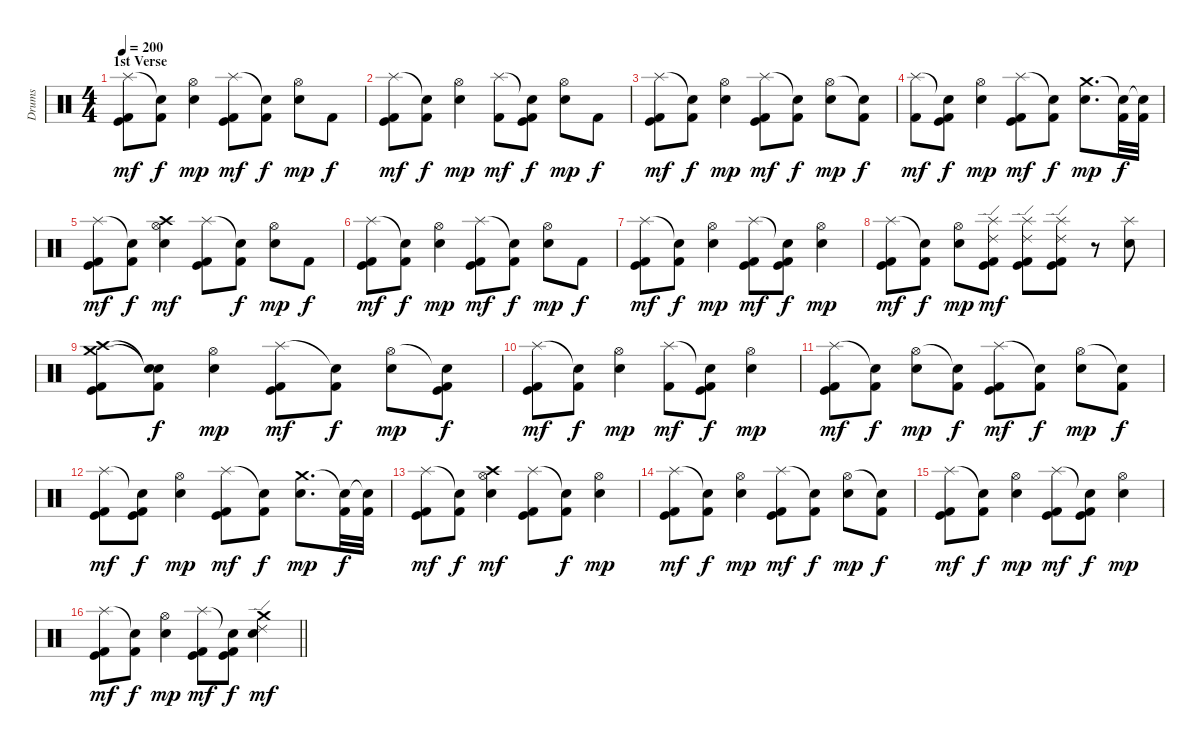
\track ("Drums" "Drums") {instrument percussion}
\staff {score}
\articulation defaults
\ts (4 4)
\section ("" "1st Verse")
\tempo 200
\clef neutral
\ks c
("Splash (hit)" "Kick (hit)" "Kick (hit) 2").8{dy mf} ("Snare (hit)"{t} "Kick (hit) 2").8{dy f} ("Hi-Hat (open)" "Snare (hit) 2").4{dy mp} ("Splash (hit)" "Kick (hit)" "Kick (hit) 2").8{dy mf} ("Snare (hit)"{t} "Kick (hit) 2").8{dy f} ("Hi-Hat (open)" "Snare (hit) 2").8{dy mp} "Kick (hit) 2".8{dy f} |
("Splash (hit)" "Kick (hit)" "Kick (hit) 2").8{dy mf} ("Snare (hit)"{t} "Kick (hit) 2").8{dy f} ("Hi-Hat (open)" "Snare (hit) 2").4{dy mp} ("Splash (hit)" "Kick (hit) 2").8{dy mf} ("Snare (hit)"{t} "Kick (hit)" "Kick (hit) 2").8{dy f} ("Hi-Hat (open)" "Snare (hit) 2").8{dy mp} "Kick (hit) 2".8{dy f} |
("Splash (hit)" "Kick (hit)" "Kick (hit) 2").8{dy mf} ("Snare (hit)"{t} "Kick (hit) 2").8{dy f} ("Hi-Hat (open)" "Snare (hit) 2").4{dy mp} ("Splash (hit)" "Kick (hit)" "Kick (hit) 2").8{dy mf} ("Snare (hit)"{t} "Kick (hit) 2").8{dy f} ("Hi-Hat (open)" "Snare (hit) 2").8{dy mp} ("Snare (hit)"{t} "Kick (hit) 2").8{dy f} |
("Splash (hit)" "Kick (hit) 2").8{dy mf} ("Snare (hit)"{t} "Kick (hit)" "Kick (hit) 2").8{dy f} ("Hi-Hat (open)" "Snare (hit) 2").4{dy mp} ("Splash (hit)" "Kick (hit)" "Kick (hit) 2").8{dy mf} ("Snare (hit)"{t} "Kick (hit) 2").8{dy f} ("Crash medium (hit)" "Snare (hit) 2").8{d dy mp} ("Snare (hit)"{t} "Kick (hit) 2").32{dy f} ("Snare (hit)"{t} "Kick (hit) 2").32 |
("Splash (hit)" "Kick (hit)" "Kick (hit) 2").8{dy mf} ("Snare (hit)"{t} "Kick (hit) 2").8{dy f} ("Crash high (hit)" "Hi-Hat (open)" "Snare (hit) 2").4{dy mf} ("Splash (hit)" "Kick (hit)" "Kick (hit) 2").8 ("Snare (hit)"{t} "Kick (hit) 2").8{dy f} ("Hi-Hat (open)" "Snare (hit) 2").8{dy mp} "Kick (hit) 2".8{dy f} |
("Splash (hit)" "Kick (hit)" "Kick (hit) 2").8{dy mf} ("Snare (hit)"{t} "Kick (hit) 2").8{dy f} ("Hi-Hat (open)" "Snare (hit) 2").4{dy mp} ("Splash (hit)" "Kick (hit)" "Kick (hit) 2").8{dy mf} ("Snare (hit)"{t} "Kick (hit) 2").8{dy f} ("Hi-Hat (open)" "Snare (hit) 2").8{dy mp} "Kick (hit) 2".8{dy f} |
("Splash (hit)" "Kick (hit)" "Kick (hit) 2").8{dy mf} ("Snare (hit)"{t} "Kick (hit) 2").8{dy f} ("Hi-Hat (open)" "Snare (hit) 2").4{dy mp} ("Splash (hit)" "Kick (hit)" "Kick (hit) 2").8{dy mf} ("Snare (hit)"{t} "Kick (hit)" "Kick (hit) 2").8{dy f} ("Hi-Hat (open)" "Snare (hit) 2").4{dy mp} |
("Splash (hit)" "Kick (hit)" "Kick (hit) 2").8{dy mf} ("Snare (hit)"{t} "Kick (hit) 2").8{dy f} ("Hi-Hat (open)" "Snare (hit) 2").8{dy mp} ("Splash (hit)" "Ride (edge) 2" "Kick (hit)" "Kick (hit) 2").8{dy mf} ("Splash (hit)" "Ride (edge) 2" "Kick (hit)" "Kick (hit) 2").8 ("Splash (hit)" "Ride (edge) 2" "Kick (hit)" "Kick (hit) 2").8 r.8 ("Splash (hit)" "Snare (hit) 2").8 |
("Crash high (hit)" "Crash medium (hit)" "Kick (hit)" "Kick (hit) 2").8 ("Snare (hit)"{t} "Snare (hit)"{t} "Kick (hit) 2").8{dy f} ("Hi-Hat (open)" "Snare (hit) 2").4{dy mp} ("Splash (hit)" "Kick (hit)" "Kick (hit) 2").8{dy mf} ("Snare (hit)"{t} "Kick (hit) 2").8{dy f} ("Hi-Hat (open)" "Snare (hit) 2").8{dy mp} ("Snare (hit)"{t} "Kick (hit) 2" "Kick (hit)").8{dy f} |
("Splash (hit)" "Kick (hit)" "Kick (hit) 2").8{dy mf} ("Snare (hit)"{t} "Kick (hit) 2").8{dy f} ("Hi-Hat (open)" "Snare (hit) 2").4{dy mp} ("Splash (hit)" "Kick (hit) 2").8{dy mf} ("Snare (hit)"{t} "Kick (hit)" "Kick (hit) 2").8{dy f} ("Hi-Hat (open)" "Snare (hit) 2").4{dy mp} |
("Splash (hit)" "Kick (hit)" "Kick (hit) 2").8{dy mf} ("Snare (hit)"{t} "Kick (hit) 2").8{dy f} ("Hi-Hat (open)" "Snare (hit) 2").8{dy mp} ("Snare (hit)"{t} "Kick (hit) 2").8{dy f} ("Splash (hit)" "Kick (hit)" "Kick (hit) 2").8{dy mf} ("Snare (hit)"{t} "Kick (hit) 2").8{dy f} ("Hi-Hat (open)" "Snare (hit) 2").8{dy mp} ("Snare (hit)"{t} "Kick (hit) 2").8{dy f} |
("Splash (hit)" "Kick (hit)" "Kick (hit) 2").8{dy mf} ("Snare (hit)"{t} "Kick (hit)" "Kick (hit) 2").8{dy f} ("Hi-Hat (open)" "Snare (hit) 2").4{dy mp} ("Splash (hit)" "Kick (hit)" "Kick (hit) 2").8{dy mf} ("Snare (hit)"{t} "Kick (hit) 2").8{dy f} ("Crash medium (hit)" "Snare (hit) 2").8{d dy mp} ("Snare (hit)"{t} "Kick (hit) 2").32{dy f} ("Snare (hit)"{t} "Kick (hit) 2").32 |
("Splash (hit)" "Kick (hit)" "Kick (hit) 2").8{dy mf} ("Snare (hit)"{t} "Kick (hit) 2").8{dy f} ("Crash high (hit)" "Hi-Hat (open)" "Snare (hit) 2").4{dy mf} ("Splash (hit)" "Kick (hit)" "Kick (hit) 2").8 ("Snare (hit)"{t} "Kick (hit) 2").8{dy f} ("Hi-Hat (open)" "Snare (hit) 2").4{dy mp} |
("Splash (hit)" "Kick (hit)" "Kick (hit) 2").8{dy mf} ("Snare (hit)"{t} "Kick (hit) 2").8{dy f} ("Hi-Hat (open)" "Snare (hit) 2").4{dy mp} ("Splash (hit)" "Kick (hit)" "Kick (hit) 2").8{dy mf} ("Snare (hit)"{t} "Kick (hit) 2").8{dy f} ("Hi-Hat (open)" "Snare (hit) 2").8{dy mp} ("Snare (hit)"{t} "Kick (hit) 2").8{dy f} |
("Splash (hit)" "Kick (hit)" "Kick (hit) 2").8{dy mf} ("Snare (hit)"{t} "Kick (hit) 2").8{dy f} ("Hi-Hat (open)" "Snare (hit) 2").4{dy mp} ("Splash (hit)" "Kick (hit)" "Kick (hit) 2").8{dy mf} ("Snare (hit)"{t} "Kick (hit)" "Kick (hit) 2").8{dy f} ("Hi-Hat (open)" "Snare (hit) 2").4{dy mp} |
\barLineRight lightlight
("Splash (hit)" "Kick (hit)" "Kick (hit) 2").8{dy mf} ("Snare (hit)"{t} "Kick (hit) 2").8{dy f} ("Hi-Hat (open)" "Snare (hit) 2").4{dy mp} ("Splash (hit)" "Kick (hit)" "Kick (hit) 2").8{dy mf} ("Snare (hit)"{t} "Kick (hit)" "Kick (hit) 2").8{dy f} ("Ride (edge) 2" "Crash medium (hit)" "Snare (hit) 2").4{dy mf}
